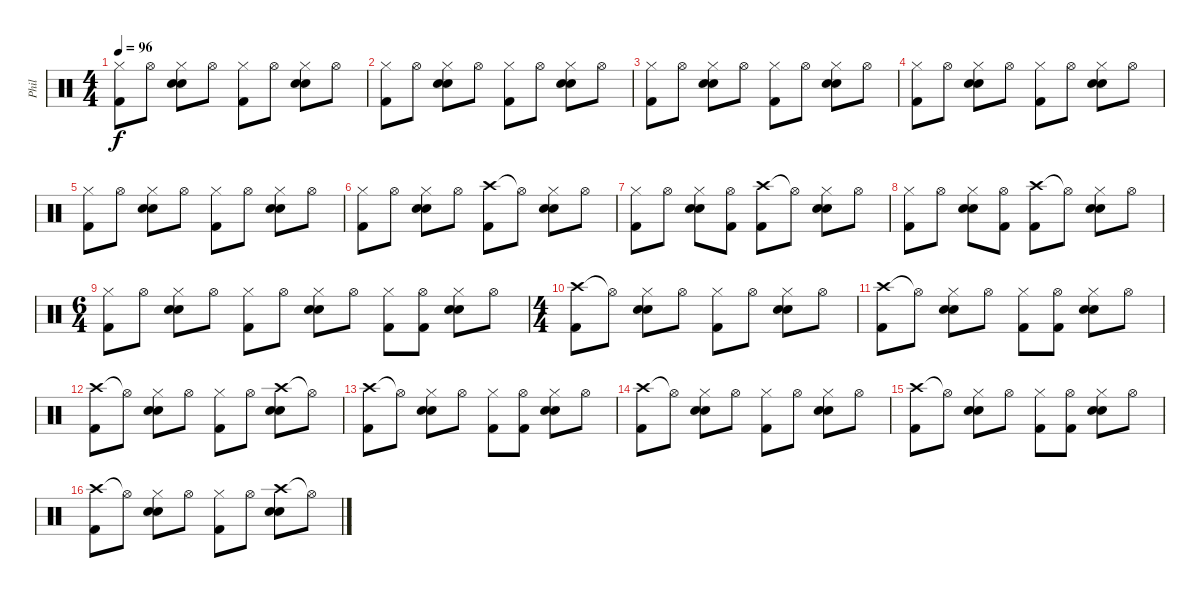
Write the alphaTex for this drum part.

\track ("Phil" "Phil") {instrument percussion}
\staff {score}
\articulation defaults
\ts (4 4)
\tempo 96
\clef neutral
\ks c
("Hi-Hat (closed)" "Kick (hit) 2").8{dy f} "Hi-Hat (open)".8 ("Hi-Hat (closed)" "Snare (hit) 2" "Electric Snare (hit)").8 "Hi-Hat (open)".8 ("Hi-Hat (closed)" "Kick (hit) 2").8 "Hi-Hat (open)".8 ("Hi-Hat (closed)" "Snare (hit) 2" "Electric Snare (hit)").8 "Hi-Hat (open)".8 |
("Hi-Hat (closed)" "Kick (hit) 2").8 "Hi-Hat (open)".8 ("Hi-Hat (closed)" "Snare (hit) 2" "Electric Snare (hit)").8 "Hi-Hat (open)".8 ("Hi-Hat (closed)" "Kick (hit) 2").8 "Hi-Hat (open)".8 ("Hi-Hat (closed)" "Snare (hit) 2" "Electric Snare (hit)").8 "Hi-Hat (open)".8 |
("Hi-Hat (closed)" "Kick (hit) 2").8 "Hi-Hat (open)".8 ("Hi-Hat (closed)" "Snare (hit) 2" "Electric Snare (hit)").8 "Hi-Hat (open)".8 ("Hi-Hat (closed)" "Kick (hit) 2").8 "Hi-Hat (open)".8 ("Hi-Hat (closed)" "Snare (hit) 2" "Electric Snare (hit)").8 "Hi-Hat (open)".8 |
("Hi-Hat (closed)" "Kick (hit) 2").8 "Hi-Hat (open)".8 ("Hi-Hat (closed)" "Snare (hit) 2" "Electric Snare (hit)").8 "Hi-Hat (open)".8 ("Hi-Hat (closed)" "Kick (hit) 2").8 "Hi-Hat (open)".8 ("Hi-Hat (closed)" "Snare (hit) 2" "Electric Snare (hit)").8 "Hi-Hat (open)".8 |
("Hi-Hat (closed)" "Kick (hit) 2").8 "Hi-Hat (open)".8 ("Hi-Hat (closed)" "Snare (hit) 2" "Electric Snare (hit)").8 "Hi-Hat (open)".8 ("Hi-Hat (closed)" "Kick (hit) 2").8 "Hi-Hat (open)".8 ("Hi-Hat (closed)" "Snare (hit) 2" "Electric Snare (hit)").8 "Hi-Hat (open)".8 |
("Hi-Hat (closed)" "Kick (hit) 2").8 "Hi-Hat (open)".8 ("Hi-Hat (closed)" "Snare (hit) 2" "Electric Snare (hit)").8 "Hi-Hat (open)".8 ("Crash high (hit)" "Kick (hit) 2").8 "Hi-Hat (open)"{t}.8 ("Hi-Hat (closed)" "Snare (hit) 2" "Electric Snare (hit)").8 "Hi-Hat (open)".8 |
("Hi-Hat (closed)" "Kick (hit) 2").8 "Hi-Hat (open)".8 ("Hi-Hat (closed)" "Snare (hit) 2" "Electric Snare (hit)").8 ("Hi-Hat (open)" "Kick (hit) 2").8 ("Crash high (hit)" "Kick (hit) 2").8 "Hi-Hat (open)"{t}.8 ("Hi-Hat (closed)" "Snare (hit) 2" "Electric Snare (hit)").8 "Hi-Hat (open)".8 |
("Hi-Hat (closed)" "Kick (hit) 2").8 "Hi-Hat (open)".8 ("Hi-Hat (closed)" "Snare (hit) 2" "Electric Snare (hit)").8 ("Hi-Hat (open)" "Kick (hit) 2").8 ("Crash high (hit)" "Kick (hit) 2").8 "Hi-Hat (open)"{t}.8 ("Hi-Hat (closed)" "Snare (hit) 2" "Electric Snare (hit)").8 "Hi-Hat (open)".8 |
\ts (6 4)
("Hi-Hat (closed)" "Kick (hit) 2").8 "Hi-Hat (open)".8 ("Hi-Hat (closed)" "Snare (hit) 2" "Electric Snare (hit)").8 "Hi-Hat (open)".8 ("Hi-Hat (closed)" "Kick (hit) 2").8 "Hi-Hat (open)".8 ("Hi-Hat (closed)" "Snare (hit) 2" "Electric Snare (hit)").8 "Hi-Hat (open)".8 ("Hi-Hat (closed)" "Kick (hit) 2").8 ("Hi-Hat (open)" "Kick (hit) 2").8 ("Hi-Hat (closed)" "Snare (hit) 2" "Electric Snare (hit)").8 "Hi-Hat (open)".8 |
\ts (4 4)
("Crash high (hit)" "Kick (hit) 2").8 "Hi-Hat (open)"{t}.8 ("Hi-Hat (closed)" "Snare (hit) 2" "Electric Snare (hit)").8 "Hi-Hat (open)".8 ("Hi-Hat (closed)" "Kick (hit) 2").8 "Hi-Hat (open)".8 ("Hi-Hat (closed)" "Snare (hit) 2" "Electric Snare (hit)").8 "Hi-Hat (open)".8 |
("Crash high (hit)" "Kick (hit) 2").8 "Hi-Hat (open)"{t}.8 ("Hi-Hat (closed)" "Snare (hit) 2" "Electric Snare (hit)").8 "Hi-Hat (open)".8 ("Hi-Hat (closed)" "Kick (hit) 2").8 ("Hi-Hat (open)" "Kick (hit) 2").8 ("Hi-Hat (closed)" "Snare (hit) 2" "Electric Snare (hit)").8 "Hi-Hat (open)".8 |
("Crash high (hit)" "Kick (hit) 2").8 "Hi-Hat (open)"{t}.8 ("Hi-Hat (closed)" "Snare (hit) 2" "Electric Snare (hit)").8 "Hi-Hat (open)".8 ("Hi-Hat (closed)" "Kick (hit) 2").8 "Hi-Hat (open)".8 ("Crash high (hit)" "Snare (hit) 2" "Electric Snare (hit)").8 "Hi-Hat (open)"{t}.8 |
("Crash high (hit)" "Kick (hit) 2").8 "Hi-Hat (open)"{t}.8 ("Hi-Hat (closed)" "Snare (hit) 2" "Electric Snare (hit)").8 "Hi-Hat (open)".8 ("Hi-Hat (closed)" "Kick (hit) 2").8 ("Hi-Hat (open)" "Kick (hit) 2").8 ("Hi-Hat (closed)" "Snare (hit) 2" "Electric Snare (hit)").8 "Hi-Hat (open)".8 |
("Crash high (hit)" "Kick (hit) 2").8 "Hi-Hat (open)"{t}.8 ("Hi-Hat (closed)" "Snare (hit) 2" "Electric Snare (hit)").8 "Hi-Hat (open)".8 ("Hi-Hat (closed)" "Kick (hit) 2").8 "Hi-Hat (open)".8 ("Hi-Hat (closed)" "Snare (hit) 2" "Electric Snare (hit)").8 "Hi-Hat (open)".8 |
("Crash high (hit)" "Kick (hit) 2").8 "Hi-Hat (open)"{t}.8 ("Hi-Hat (closed)" "Snare (hit) 2" "Electric Snare (hit)").8 "Hi-Hat (open)".8 ("Hi-Hat (closed)" "Kick (hit) 2").8 ("Hi-Hat (open)" "Kick (hit) 2").8 ("Hi-Hat (closed)" "Snare (hit) 2" "Electric Snare (hit)").8 "Hi-Hat (open)".8 |
("Crash high (hit)" "Kick (hit) 2").8 "Hi-Hat (open)"{t}.8 ("Hi-Hat (closed)" "Snare (hit) 2" "Electric Snare (hit)").8 "Hi-Hat (open)".8 ("Hi-Hat (closed)" "Kick (hit) 2").8 "Hi-Hat (open)".8 ("Crash high (hit)" "Snare (hit) 2" "Electric Snare (hit)").8 "Hi-Hat (open)"{t}.8
